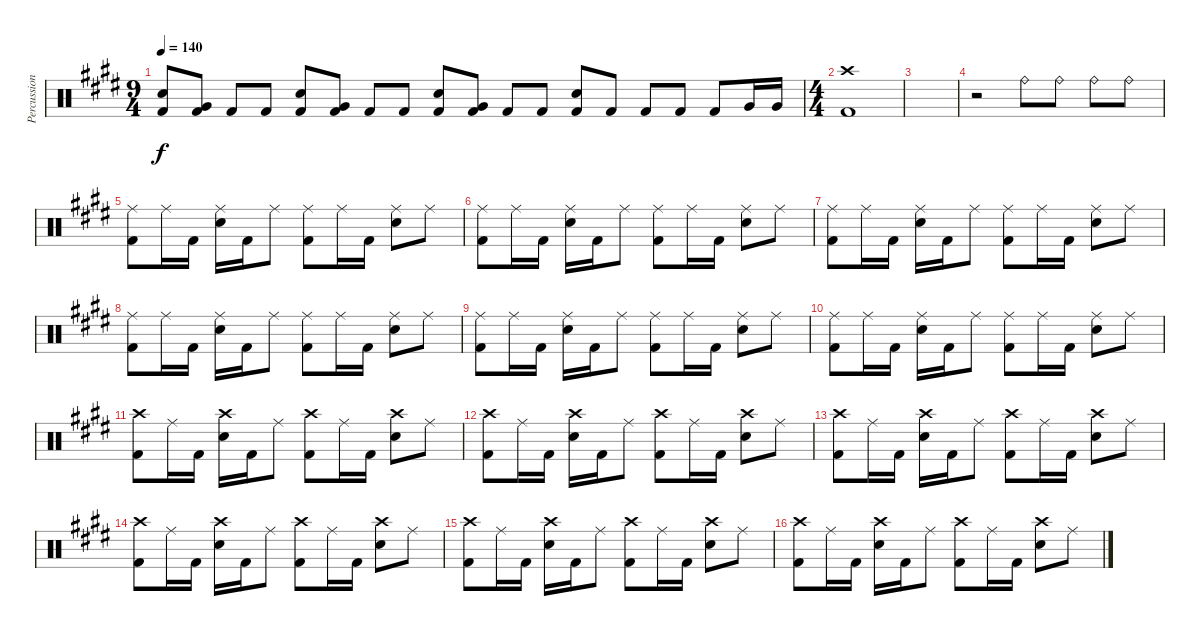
\track ("Percussion" "Percussion") {instrument percussion}
\staff {score}
\articulation defaults
\ts (9 4)
\tempo 140
\clef neutral
\ks c#minor
("Kick (hit) 2" "Electric Snare (hit)").8{dy f} ("Kick (hit) 2" "Very Low Tom (hit)").8 "Kick (hit) 2".8 "Kick (hit) 2".8 ("Kick (hit) 2" "Electric Snare (hit)").8 ("Kick (hit) 2" "Very Low Tom (hit)").8 "Kick (hit) 2".8 "Kick (hit) 2".8 ("Kick (hit) 2" "Electric Snare (hit)").8 ("Kick (hit) 2" "Very Low Tom (hit)").8 "Kick (hit) 2".8 "Kick (hit) 2".8 ("Kick (hit) 2" "Electric Snare (hit)").8 "Kick (hit) 2".8 "Kick (hit) 2".8 "Kick (hit) 2".8 "Kick (hit) 2".8 "Very Low Tom (hit)".16 "Very Low Tom (hit)".16 |
\ts (4 4)
("Kick (hit) 2" "Crash high (hit)").1 |
|
r.2 "Ride (bell)".8 "Ride (bell)".8 "Ride (bell)".8 "Ride (bell)".8 |
("Kick (hit) 2" "Ride (middle)").8 "Ride (middle)".16 "Kick (hit) 2".16 ("Ride (middle)" "Electric Snare (hit)").16 "Kick (hit) 2".16 "Ride (middle)".8 ("Kick (hit) 2" "Ride (middle)").8 "Ride (middle)".16 "Kick (hit) 2".16 ("Ride (middle)" "Electric Snare (hit)").8 "Ride (middle)".8 |
("Kick (hit) 2" "Ride (middle)").8 "Ride (middle)".16 "Kick (hit) 2".16 ("Ride (middle)" "Electric Snare (hit)").16 "Kick (hit) 2".16 "Ride (middle)".8 ("Kick (hit) 2" "Ride (middle)").8 "Ride (middle)".16 "Kick (hit) 2".16 ("Ride (middle)" "Electric Snare (hit)").8 "Ride (middle)".8 |
("Kick (hit) 2" "Ride (middle)").8 "Ride (middle)".16 "Kick (hit) 2".16 ("Ride (middle)" "Electric Snare (hit)").16 "Kick (hit) 2".16 "Ride (middle)".8 ("Kick (hit) 2" "Ride (middle)").8 "Ride (middle)".16 "Kick (hit) 2".16 ("Ride (middle)" "Electric Snare (hit)").8 "Ride (middle)".8 |
("Kick (hit) 2" "Ride (middle)").8 "Ride (middle)".16 "Kick (hit) 2".16 ("Ride (middle)" "Electric Snare (hit)").16 "Kick (hit) 2".16 "Ride (middle)".8 ("Kick (hit) 2" "Ride (middle)").8 "Ride (middle)".16 "Kick (hit) 2".16 ("Ride (middle)" "Electric Snare (hit)").8 "Ride (middle)".8 |
("Kick (hit) 2" "Ride (middle)").8 "Ride (middle)".16 "Kick (hit) 2".16 ("Ride (middle)" "Electric Snare (hit)").16 "Kick (hit) 2".16 "Ride (middle)".8 ("Kick (hit) 2" "Ride (middle)").8 "Ride (middle)".16 "Kick (hit) 2".16 ("Ride (middle)" "Electric Snare (hit)").8 "Ride (middle)".8 |
("Kick (hit) 2" "Ride (middle)").8 "Ride (middle)".16 "Kick (hit) 2".16 ("Ride (middle)" "Electric Snare (hit)").16 "Kick (hit) 2".16 "Ride (middle)".8 ("Kick (hit) 2" "Ride (middle)").8 "Ride (middle)".16 "Kick (hit) 2".16 ("Ride (middle)" "Electric Snare (hit)").8 "Ride (middle)".8 |
("Kick (hit) 2" "Crash high (hit)").8 "Ride (middle)".16 "Kick (hit) 2".16 ("Crash high (hit)" "Electric Snare (hit)").16 "Kick (hit) 2".16 "Ride (middle)".8 ("Kick (hit) 2" "Crash high (hit)").8 "Ride (middle)".16 "Kick (hit) 2".16 ("Crash high (hit)" "Electric Snare (hit)").8 "Ride (middle)".8 |
("Kick (hit) 2" "Crash high (hit)").8 "Ride (middle)".16 "Kick (hit) 2".16 ("Crash high (hit)" "Electric Snare (hit)").16 "Kick (hit) 2".16 "Ride (middle)".8 ("Kick (hit) 2" "Crash high (hit)").8 "Ride (middle)".16 "Kick (hit) 2".16 ("Crash high (hit)" "Electric Snare (hit)").8 "Ride (middle)".8 |
("Kick (hit) 2" "Crash high (hit)").8 "Ride (middle)".16 "Kick (hit) 2".16 ("Crash high (hit)" "Electric Snare (hit)").16 "Kick (hit) 2".16 "Ride (middle)".8 ("Kick (hit) 2" "Crash high (hit)").8 "Ride (middle)".16 "Kick (hit) 2".16 ("Crash high (hit)" "Electric Snare (hit)").8 "Ride (middle)".8 |
("Kick (hit) 2" "Crash high (hit)").8 "Ride (middle)".16 "Kick (hit) 2".16 ("Crash high (hit)" "Electric Snare (hit)").16 "Kick (hit) 2".16 "Ride (middle)".8 ("Kick (hit) 2" "Crash high (hit)").8 "Ride (middle)".16 "Kick (hit) 2".16 ("Crash high (hit)" "Electric Snare (hit)").8 "Ride (middle)".8 |
("Kick (hit) 2" "Crash high (hit)").8 "Ride (middle)".16 "Kick (hit) 2".16 ("Crash high (hit)" "Electric Snare (hit)").16 "Kick (hit) 2".16 "Ride (middle)".8 ("Kick (hit) 2" "Crash high (hit)").8 "Ride (middle)".16 "Kick (hit) 2".16 ("Crash high (hit)" "Electric Snare (hit)").8 "Ride (middle)".8 |
("Kick (hit) 2" "Crash high (hit)").8 "Ride (middle)".16 "Kick (hit) 2".16 ("Crash high (hit)" "Electric Snare (hit)").16 "Kick (hit) 2".16 "Ride (middle)".8 ("Kick (hit) 2" "Crash high (hit)").8 "Ride (middle)".16 "Kick (hit) 2".16 ("Crash high (hit)" "Electric Snare (hit)").8 "Ride (middle)".8
